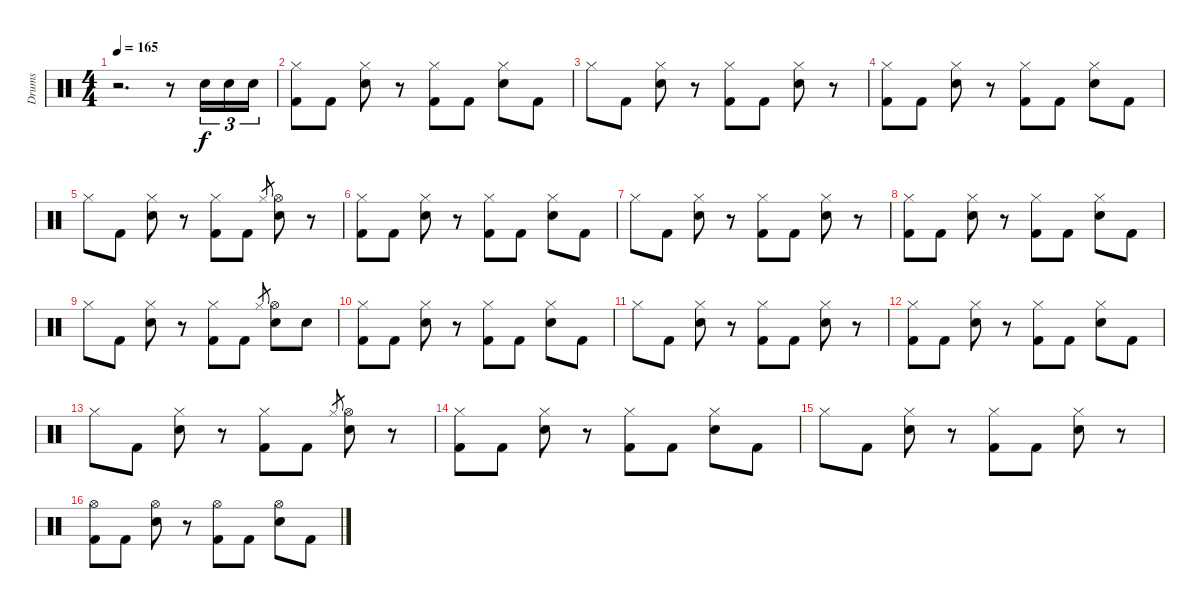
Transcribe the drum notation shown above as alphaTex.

\track ("Drums" "Drums") {instrument percussion}
\staff {score}
\articulation defaults
\ts (4 4)
\tempo 165
\clef neutral
\ks c
r.2{d dy f} r.8 "Electric Snare (hit)".16{tu (3 2)} "Electric Snare (hit)".16{tu (3 2)} "Electric Snare (hit)".16{tu (3 2)} |
("Hi-Hat (closed)" "Kick (hit) 2").8 "Kick (hit) 2".8 ("Hi-Hat (closed)" "Electric Snare (hit)").8 r.8 ("Hi-Hat (closed)" "Kick (hit) 2").8 "Kick (hit) 2".8 ("Hi-Hat (closed)" "Electric Snare (hit)").8 "Kick (hit) 2".8 |
"Hi-Hat (closed)".8 "Kick (hit) 2".8 ("Hi-Hat (closed)" "Electric Snare (hit)").8 r.8 ("Hi-Hat (closed)" "Kick (hit) 2").8 "Kick (hit) 2".8 ("Hi-Hat (closed)" "Electric Snare (hit)").8 r.8 |
("Hi-Hat (closed)" "Kick (hit) 2").8 "Kick (hit) 2".8 ("Hi-Hat (closed)" "Electric Snare (hit)").8 r.8 ("Hi-Hat (closed)" "Kick (hit) 2").8 "Kick (hit) 2".8 ("Hi-Hat (closed)" "Electric Snare (hit)").8 "Kick (hit) 2".8 |
"Hi-Hat (closed)".8 "Kick (hit) 2".8 ("Hi-Hat (closed)" "Electric Snare (hit)").8 r.8 ("Hi-Hat (closed)" "Kick (hit) 2").8 "Kick (hit) 2".8 "Hi-Hat (closed)".8{gr} ("Hi-Hat (open)" "Electric Snare (hit)").8 r.8 |
("Hi-Hat (closed)" "Kick (hit) 2").8 "Kick (hit) 2".8 ("Hi-Hat (closed)" "Electric Snare (hit)").8 r.8 ("Hi-Hat (closed)" "Kick (hit) 2").8 "Kick (hit) 2".8 ("Hi-Hat (closed)" "Electric Snare (hit)").8 "Kick (hit) 2".8 |
"Hi-Hat (closed)".8 "Kick (hit) 2".8 ("Hi-Hat (closed)" "Electric Snare (hit)").8 r.8 ("Hi-Hat (closed)" "Kick (hit) 2").8 "Kick (hit) 2".8 ("Hi-Hat (closed)" "Electric Snare (hit)").8 r.8 |
("Hi-Hat (closed)" "Kick (hit) 2").8 "Kick (hit) 2".8 ("Hi-Hat (closed)" "Electric Snare (hit)").8 r.8 ("Hi-Hat (closed)" "Kick (hit) 2").8 "Kick (hit) 2".8 ("Hi-Hat (closed)" "Electric Snare (hit)").8 "Kick (hit) 2".8 |
"Hi-Hat (closed)".8 "Kick (hit) 2".8 ("Hi-Hat (closed)" "Electric Snare (hit)").8 r.8 ("Hi-Hat (closed)" "Kick (hit) 2").8 "Kick (hit) 2".8 "Hi-Hat (closed)".8{gr} ("Hi-Hat (open)" "Electric Snare (hit)").8 "Electric Snare (hit)".8 |
("Hi-Hat (closed)" "Kick (hit) 2").8 "Kick (hit) 2".8 ("Hi-Hat (closed)" "Electric Snare (hit)").8 r.8 ("Hi-Hat (closed)" "Kick (hit) 2").8 "Kick (hit) 2".8 ("Hi-Hat (closed)" "Electric Snare (hit)").8 "Kick (hit) 2".8 |
"Hi-Hat (closed)".8 "Kick (hit) 2".8 ("Hi-Hat (closed)" "Electric Snare (hit)").8 r.8 ("Hi-Hat (closed)" "Kick (hit) 2").8 "Kick (hit) 2".8 ("Hi-Hat (closed)" "Electric Snare (hit)").8 r.8 |
("Hi-Hat (closed)" "Kick (hit) 2").8 "Kick (hit) 2".8 ("Hi-Hat (closed)" "Electric Snare (hit)").8 r.8 ("Hi-Hat (closed)" "Kick (hit) 2").8 "Kick (hit) 2".8 ("Hi-Hat (closed)" "Electric Snare (hit)").8 "Kick (hit) 2".8 |
"Hi-Hat (closed)".8 "Kick (hit) 2".8 ("Hi-Hat (closed)" "Electric Snare (hit)").8 r.8 ("Hi-Hat (closed)" "Kick (hit) 2").8 "Kick (hit) 2".8 "Hi-Hat (closed)".8{gr} ("Hi-Hat (open)" "Electric Snare (hit)").8 r.8 |
("Hi-Hat (closed)" "Kick (hit) 2").8 "Kick (hit) 2".8 ("Hi-Hat (closed)" "Electric Snare (hit)").8 r.8 ("Hi-Hat (closed)" "Kick (hit) 2").8 "Kick (hit) 2".8 ("Hi-Hat (closed)" "Electric Snare (hit)").8 "Kick (hit) 2".8 |
"Hi-Hat (closed)".8 "Kick (hit) 2".8 ("Hi-Hat (closed)" "Electric Snare (hit)").8 r.8 ("Hi-Hat (closed)" "Kick (hit) 2").8 "Kick (hit) 2".8 ("Hi-Hat (closed)" "Electric Snare (hit)").8 r.8 |
("Hi-Hat (open)" "Kick (hit) 2").8 "Kick (hit) 2".8 ("Hi-Hat (open)" "Electric Snare (hit)").8 r.8 ("Hi-Hat (open)" "Kick (hit) 2").8 "Kick (hit) 2".8 ("Hi-Hat (open)" "Electric Snare (hit)").8 "Kick (hit) 2".8
